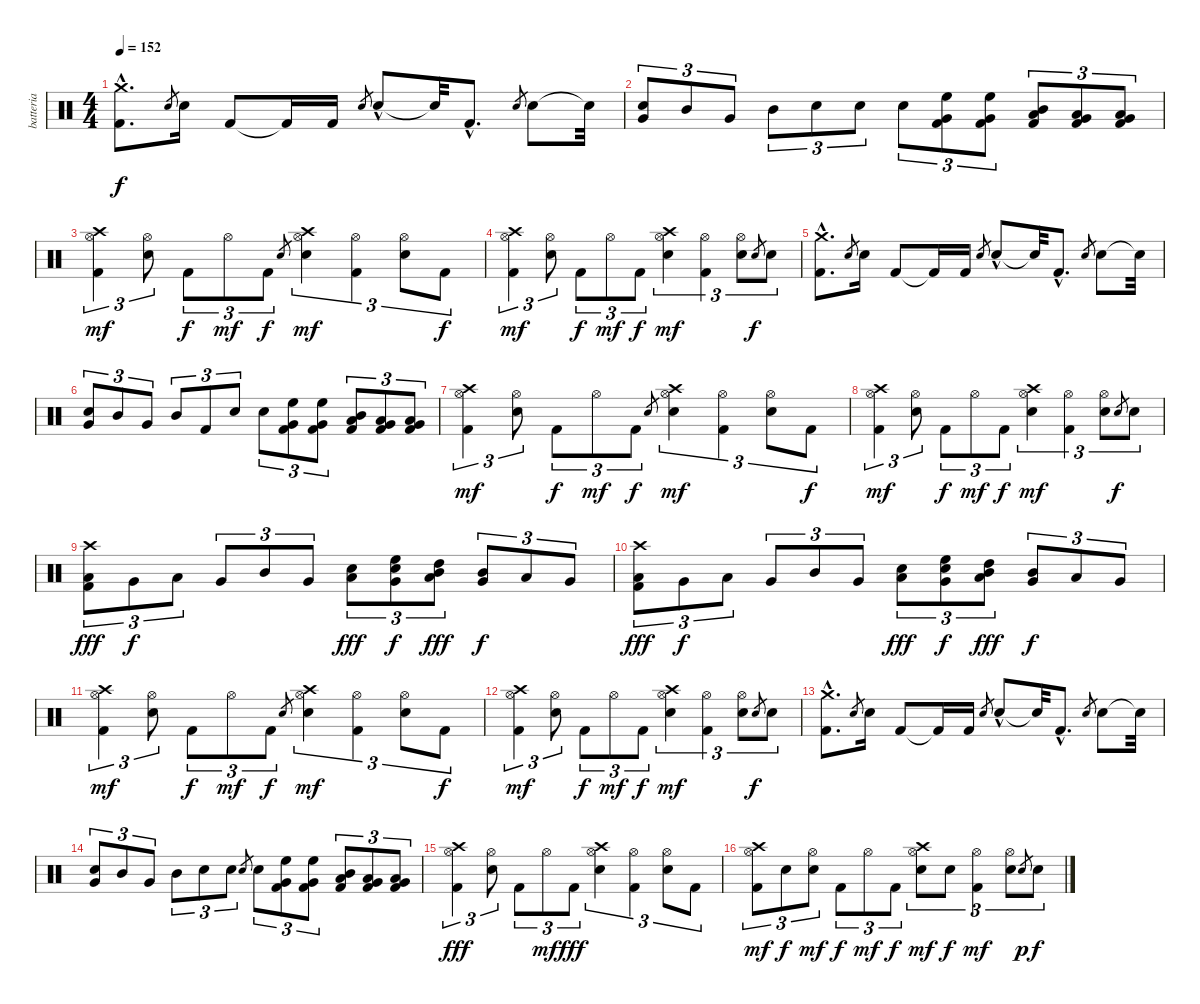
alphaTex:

\track ("batteria" "batteria") {instrument percussion}
\staff {score}
\articulation defaults
\ts (4 4)
\tempo 152
\clef neutral
\ks c
("Crash medium (hit)"{hac} "Kick (hit) 2"{hac}).8{d dy f} "Electric Snare (hit)".8{gr} "Electric Snare (hit)".16 "Kick (hit) 2".8 "Kick (hit) 2"{t}.16 "Kick (hit) 2".16 "Electric Snare (hit)".8{gr} "Electric Snare (hit)"{hac}.8 "Electric Snare (hit)"{t}.32 "Kick (hit) 2"{hac}.8{d} "Electric Snare (hit)".8{gr} "Electric Snare (hit)".8 "Electric Snare (hit)"{t}.32 |
("Very Low Tom (hit)" "Electric Snare (hit)").8{tu (3 2)} "Mid Tom (hit)".8{tu (3 2)} "Very Low Tom (hit)".8{tu (3 2)} "Mid Tom (hit)".8{tu (3 2)} "Electric Snare (hit)".8{tu (3 2)} "Electric Snare (hit)".8{tu (3 2)} "Electric Snare (hit)".8{tu (3 2)} ("Very Low Tom (hit)" "High Floor Tom (hit)" "Kick (hit) 2").8{tu (3 2)} ("Very Low Tom (hit)" "High Floor Tom (hit)" "Kick (hit) 2").8{tu (3 2)} ("Low Tom (hit)" "Mid Tom (hit)" "Kick (hit) 2").8{tu (3 2)} ("Low Tom (hit)" "Very Low Tom (hit)" "Kick (hit) 2").8{tu (3 2)} ("Low Floor Tom (hit)" "Very Low Tom (hit)" "Kick (hit) 2").8{tu (3 2)} |
("Hi-Hat (open)" "Crash high (hit)" "Kick (hit) 2").4{tu (3 2) dy mf} ("Hi-Hat (open)" "Electric Snare (hit)").8{tu (3 2)} "Kick (hit) 2".8{tu (3 2) dy f} "Hi-Hat (open)".8{tu (3 2) dy mf} "Kick (hit) 2".8{tu (3 2) dy f} "Electric Snare (hit)".8{gr} ("Hi-Hat (open)" "Crash high (hit)" "Electric Snare (hit)").4{tu (3 2) dy mf} ("Hi-Hat (open)" "Kick (hit) 2").4{tu (3 2)} ("Hi-Hat (open)" "Electric Snare (hit)").8{tu (3 2)} "Kick (hit) 2".8{tu (3 2) dy f} |
("Hi-Hat (open)" "Crash high (hit)" "Kick (hit) 2").4{tu (3 2) dy mf} ("Hi-Hat (open)" "Electric Snare (hit)").8{tu (3 2)} "Kick (hit) 2".8{tu (3 2) dy f} "Hi-Hat (open)".8{tu (3 2) dy mf} "Kick (hit) 2".8{tu (3 2) dy f} ("Hi-Hat (open)" "Crash high (hit)" "Electric Snare (hit)").4{tu (3 2) dy mf} ("Hi-Hat (open)" "Kick (hit) 2").4{tu (3 2)} ("Hi-Hat (open)" "Electric Snare (hit)").8{tu (3 2)} "Electric Snare (hit)".8{gr dy f} "Electric Snare (hit)".8{tu (3 2)} |
("Crash medium (hit)"{hac} "Kick (hit) 2"{hac}).8{d} "Electric Snare (hit)".8{gr} "Electric Snare (hit)".16 "Kick (hit) 2".8 "Kick (hit) 2"{t}.16 "Kick (hit) 2".16 "Electric Snare (hit)".8{gr} "Electric Snare (hit)"{hac}.8 "Electric Snare (hit)"{t}.32 "Kick (hit) 2"{hac}.8{d} "Electric Snare (hit)".8{gr} "Electric Snare (hit)".8 "Electric Snare (hit)"{t}.32 |
("Very Low Tom (hit)" "Electric Snare (hit)").8{tu (3 2)} "Mid Tom (hit)".8{tu (3 2)} "Very Low Tom (hit)".8{tu (3 2)} "Mid Tom (hit)".8{tu (3 2)} "Kick (hit) 2".8{tu (3 2)} "Electric Snare (hit)".8{tu (3 2)} "Electric Snare (hit)".8{tu (3 2)} ("Very Low Tom (hit)" "High Floor Tom (hit)" "Kick (hit) 2").8{tu (3 2)} ("Very Low Tom (hit)" "High Floor Tom (hit)" "Kick (hit) 2").8{tu (3 2)} ("Low Tom (hit)" "Mid Tom (hit)" "Kick (hit) 2").8{tu (3 2)} ("Low Tom (hit)" "Very Low Tom (hit)" "Kick (hit) 2").8{tu (3 2)} ("Low Floor Tom (hit)" "Very Low Tom (hit)" "Kick (hit) 2").8{tu (3 2)} |
("Hi-Hat (open)" "Crash high (hit)" "Kick (hit) 2").4{tu (3 2) dy mf} ("Hi-Hat (open)" "Electric Snare (hit)").8{tu (3 2)} "Kick (hit) 2".8{tu (3 2) dy f} "Hi-Hat (open)".8{tu (3 2) dy mf} "Kick (hit) 2".8{tu (3 2) dy f} "Electric Snare (hit)".8{gr} ("Hi-Hat (open)" "Crash high (hit)" "Electric Snare (hit)").4{tu (3 2) dy mf} ("Hi-Hat (open)" "Kick (hit) 2").4{tu (3 2)} ("Hi-Hat (open)" "Electric Snare (hit)").8{tu (3 2)} "Kick (hit) 2".8{tu (3 2) dy f} |
("Hi-Hat (open)" "Crash high (hit)" "Kick (hit) 2").4{tu (3 2) dy mf} ("Hi-Hat (open)" "Electric Snare (hit)").8{tu (3 2)} "Kick (hit) 2".8{tu (3 2) dy f} "Hi-Hat (open)".8{tu (3 2) dy mf} "Kick (hit) 2".8{tu (3 2) dy f} ("Hi-Hat (open)" "Crash high (hit)" "Electric Snare (hit)").4{tu (3 2) dy mf} ("Hi-Hat (open)" "Kick (hit) 2").4{tu (3 2)} ("Hi-Hat (open)" "Electric Snare (hit)").8{tu (3 2)} "Electric Snare (hit)".8{gr dy f} "Electric Snare (hit)".8{tu (3 2)} |
("Low Floor Tom (hit)" "Crash high (hit)" "Kick (hit) 2").8{tu (3 2) dy fff} "Very Low Tom (hit)".8{tu (3 2) dy f} "Low Floor Tom (hit)".8{tu (3 2)} "Very Low Tom (hit)".8{tu (3 2)} "Mid Tom (hit)".8{tu (3 2)} "Very Low Tom (hit)".8{tu (3 2)} ("Low Tom (hit)" "Electric Snare (hit)").8{tu (3 2) dy fff} ("Very Low Tom (hit)" "High Floor Tom (hit)" "Electric Snare (hit)").8{tu (3 2) dy f} ("Low Floor Tom (hit)" "High Tom (hit)" "Mid Tom (hit)").8{tu (3 2) dy fff} ("Very Low Tom (hit)" "Mid Tom (hit)").8{tu (3 2) dy f} "Low Tom (hit)".8{tu (3 2)} "Very Low Tom (hit)".8{tu (3 2)} |
("Low Floor Tom (hit)" "Crash high (hit)" "Kick (hit) 2").8{tu (3 2) dy fff} "Very Low Tom (hit)".8{tu (3 2) dy f} "Low Floor Tom (hit)".8{tu (3 2)} "Very Low Tom (hit)".8{tu (3 2)} "Mid Tom (hit)".8{tu (3 2)} "Very Low Tom (hit)".8{tu (3 2)} ("Low Tom (hit)" "Electric Snare (hit)").8{tu (3 2) dy fff} ("Very Low Tom (hit)" "High Floor Tom (hit)" "Electric Snare (hit)").8{tu (3 2) dy f} ("Low Floor Tom (hit)" "High Tom (hit)" "Mid Tom (hit)").8{tu (3 2) dy fff} ("Very Low Tom (hit)" "Mid Tom (hit)").8{tu (3 2) dy f} "Low Tom (hit)".8{tu (3 2)} "Very Low Tom (hit)".8{tu (3 2)} |
("Hi-Hat (open)" "Crash high (hit)" "Kick (hit) 2").4{tu (3 2) dy mf} ("Hi-Hat (open)" "Electric Snare (hit)").8{tu (3 2)} "Kick (hit) 2".8{tu (3 2) dy f} "Hi-Hat (open)".8{tu (3 2) dy mf} "Kick (hit) 2".8{tu (3 2) dy f} "Electric Snare (hit)".8{gr} ("Hi-Hat (open)" "Crash high (hit)" "Electric Snare (hit)").4{tu (3 2) dy mf} ("Hi-Hat (open)" "Kick (hit) 2").4{tu (3 2)} ("Hi-Hat (open)" "Electric Snare (hit)").8{tu (3 2)} "Kick (hit) 2".8{tu (3 2) dy f} |
("Hi-Hat (open)" "Crash high (hit)" "Kick (hit) 2").4{tu (3 2) dy mf} ("Hi-Hat (open)" "Electric Snare (hit)").8{tu (3 2)} "Kick (hit) 2".8{tu (3 2) dy f} "Hi-Hat (open)".8{tu (3 2) dy mf} "Kick (hit) 2".8{tu (3 2) dy f} ("Hi-Hat (open)" "Crash high (hit)" "Electric Snare (hit)").4{tu (3 2) dy mf} ("Hi-Hat (open)" "Kick (hit) 2").4{tu (3 2)} ("Hi-Hat (open)" "Electric Snare (hit)").8{tu (3 2)} "Electric Snare (hit)".8{gr dy f} "Electric Snare (hit)".8{tu (3 2)} |
("Crash medium (hit)"{hac} "Kick (hit) 2"{hac}).8{d} "Electric Snare (hit)".8{gr} "Electric Snare (hit)".16 "Kick (hit) 2".8 "Kick (hit) 2"{t}.16 "Kick (hit) 2".16 "Electric Snare (hit)".8{gr} "Electric Snare (hit)"{hac}.8 "Electric Snare (hit)"{t}.32 "Kick (hit) 2"{hac}.8{d} "Electric Snare (hit)".8{gr} "Electric Snare (hit)".8 "Electric Snare (hit)"{t}.32 |
("Very Low Tom (hit)" "Electric Snare (hit)").8{tu (3 2)} "Mid Tom (hit)".8{tu (3 2)} "Very Low Tom (hit)".8{tu (3 2)} "Mid Tom (hit)".8{tu (3 2)} "Electric Snare (hit)".8{tu (3 2)} "Electric Snare (hit)".8{tu (3 2)} "Electric Snare (hit)".8{gr} "Electric Snare (hit)".8{tu (3 2)} ("Very Low Tom (hit)" "High Floor Tom (hit)" "Kick (hit) 2").8{tu (3 2)} ("Very Low Tom (hit)" "High Floor Tom (hit)" "Kick (hit) 2").8{tu (3 2)} ("Low Tom (hit)" "Mid Tom (hit)" "Kick (hit) 2").8{tu (3 2)} ("Low Tom (hit)" "Very Low Tom (hit)" "Kick (hit) 2").8{tu (3 2)} ("Low Floor Tom (hit)" "Very Low Tom (hit)" "Kick (hit) 2").8{tu (3 2)} |
("Hi-Hat (open)" "Crash high (hit)" "Kick (hit) 2").4{tu (3 2) dy fff} ("Hi-Hat (open)" "Electric Snare (hit)").8{tu (3 2)} "Kick (hit) 2".8{tu (3 2)} "Hi-Hat (open)".8{tu (3 2) dy mf} "Kick (hit) 2".8{tu (3 2) dy fff} ("Hi-Hat (open)" "Crash high (hit)" "Electric Snare (hit)").4{tu (3 2)} ("Hi-Hat (open)" "Kick (hit) 2").4{tu (3 2)} ("Hi-Hat (open)" "Electric Snare (hit)").8{tu (3 2)} "Kick (hit) 2".8{tu (3 2)} |
("Hi-Hat (open)" "Crash high (hit)" "Kick (hit) 2").8{tu (3 2) dy mf} "Electric Snare (hit)".8{tu (3 2) dy f} ("Hi-Hat (open)" "Electric Snare (hit)").8{tu (3 2) dy mf} "Kick (hit) 2".8{tu (3 2) dy f} "Hi-Hat (open)".8{tu (3 2) dy mf} "Kick (hit) 2".8{tu (3 2) dy f} ("Hi-Hat (open)" "Crash high (hit)" "Electric Snare (hit)").8{tu (3 2) dy mf} "Electric Snare (hit)".8{tu (3 2) dy f} ("Hi-Hat (open)" "Kick (hit) 2").4{tu (3 2) dy mf} ("Hi-Hat (open)" "Electric Snare (hit)").8{tu (3 2)} "Electric Snare (hit)"{h}.8{gr dy p} "Electric Snare (hit)".8{tu (3 2) dy f}
